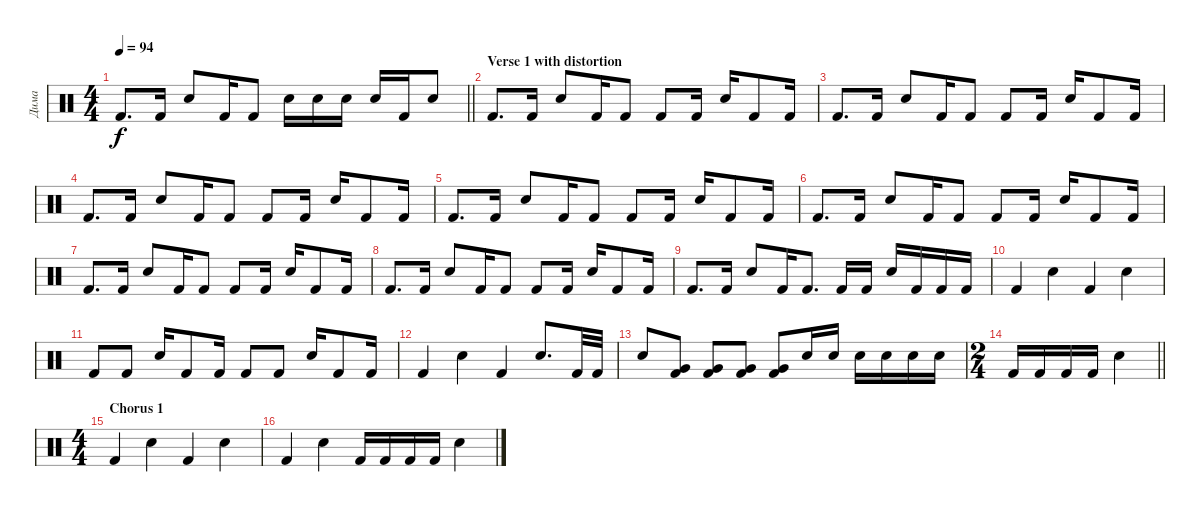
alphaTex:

\track ("Дима" "Дима") {instrument percussion}
\staff {score}
\articulation defaults
\ts (4 4)
\tempo 94
\clef neutral
\barLineRight lightlight
\ks c "Kick (hit) 2".8{d dy f} "Kick (hit) 2".16 "Snare (hit) 2".8 "Kick (hit) 2".16 "Kick (hit) 2".8 "Snare (hit) 2".16 "Snare (hit) 2".16 "Snare (hit) 2".16 "Snare (hit) 2".16 "Kick (hit) 2".16 "Snare (hit) 2".8
|
\section ("" "Verse 1 with distortion")
"Kick (hit) 2".8{d} "Kick (hit) 2".16 "Snare (hit) 2".8 "Kick (hit) 2".16 "Kick (hit) 2".8 "Kick (hit) 2".8 "Kick (hit) 2".16 "Snare (hit) 2".16 "Kick (hit) 2".8 "Kick (hit) 2".16 |
"Kick (hit) 2".8{d} "Kick (hit) 2".16 "Snare (hit) 2".8 "Kick (hit) 2".16 "Kick (hit) 2".8 "Kick (hit) 2".8 "Kick (hit) 2".16 "Snare (hit) 2".16 "Kick (hit) 2".8 "Kick (hit) 2".16 |
"Kick (hit) 2".8{d} "Kick (hit) 2".16 "Snare (hit) 2".8 "Kick (hit) 2".16 "Kick (hit) 2".8 "Kick (hit) 2".8 "Kick (hit) 2".16 "Snare (hit) 2".16 "Kick (hit) 2".8 "Kick (hit) 2".16 |
"Kick (hit) 2".8{d} "Kick (hit) 2".16 "Snare (hit) 2".8 "Kick (hit) 2".16 "Kick (hit) 2".8 "Kick (hit) 2".8 "Kick (hit) 2".16 "Snare (hit) 2".16 "Kick (hit) 2".8 "Kick (hit) 2".16 |
"Kick (hit) 2".8{d} "Kick (hit) 2".16 "Snare (hit) 2".8 "Kick (hit) 2".16 "Kick (hit) 2".8 "Kick (hit) 2".8 "Kick (hit) 2".16 "Snare (hit) 2".16 "Kick (hit) 2".8 "Kick (hit) 2".16 |
"Kick (hit) 2".8{d} "Kick (hit) 2".16 "Snare (hit) 2".8 "Kick (hit) 2".16 "Kick (hit) 2".8 "Kick (hit) 2".8 "Kick (hit) 2".16 "Snare (hit) 2".16 "Kick (hit) 2".8 "Kick (hit) 2".16 |
"Kick (hit) 2".8{d} "Kick (hit) 2".16 "Snare (hit) 2".8 "Kick (hit) 2".16 "Kick (hit) 2".8 "Kick (hit) 2".8 "Kick (hit) 2".16 "Snare (hit) 2".16 "Kick (hit) 2".8 "Kick (hit) 2".16 |
"Kick (hit) 2".8{d} "Kick (hit) 2".16 "Snare (hit) 2".8 "Kick (hit) 2".16 "Kick (hit) 2".8{d} "Kick (hit) 2".16 "Kick (hit) 2".16 "Snare (hit) 2".16 "Kick (hit) 2".16 "Kick (hit) 2".16 "Kick (hit) 2".16 |
"Kick (hit) 2".4 "Snare (hit) 2".4 "Kick (hit) 2".4 "Snare (hit) 2".4 |
"Kick (hit) 2".8 "Kick (hit) 2".8 "Snare (hit) 2".16 "Kick (hit) 2".8 "Kick (hit) 2".16 "Kick (hit) 2".8 "Kick (hit) 2".8 "Snare (hit) 2".16 "Kick (hit) 2".8 "Kick (hit) 2".16 |
"Kick (hit) 2".4 "Snare (hit) 2".4 "Kick (hit) 2".4 "Snare (hit) 2".8{d} "Kick (hit) 2".32 "Kick (hit) 2".32 |
"Snare (hit) 2".8 ("Kick (hit) 2" "Very Low Tom (hit)").8 ("Kick (hit) 2" "Very Low Tom (hit)").8 ("Kick (hit) 2" "Very Low Tom (hit)").8 ("Kick (hit) 2" "Very Low Tom (hit)").8 "Snare (hit) 2".16 "Snare (hit) 2".16 "Snare (hit) 2".16 "Snare (hit) 2".16 "Snare (hit) 2".16 "Snare (hit) 2".16 |
\ts (2 4)
\barLineRight lightlight "Kick (hit) 2".16 "Kick (hit) 2".16 "Kick (hit) 2".16 "Kick (hit) 2".16 "Snare (hit) 2".4
|
\ts (4 4)
\section ("" "Chorus 1")
"Kick (hit) 2".4 "Snare (hit) 2".4 "Kick (hit) 2".4 "Snare (hit) 2".4 |
"Kick (hit) 2".4 "Snare (hit) 2".4 "Kick (hit) 2".16 "Kick (hit) 2".16 "Kick (hit) 2".16 "Kick (hit) 2".16 "Snare (hit) 2".4
